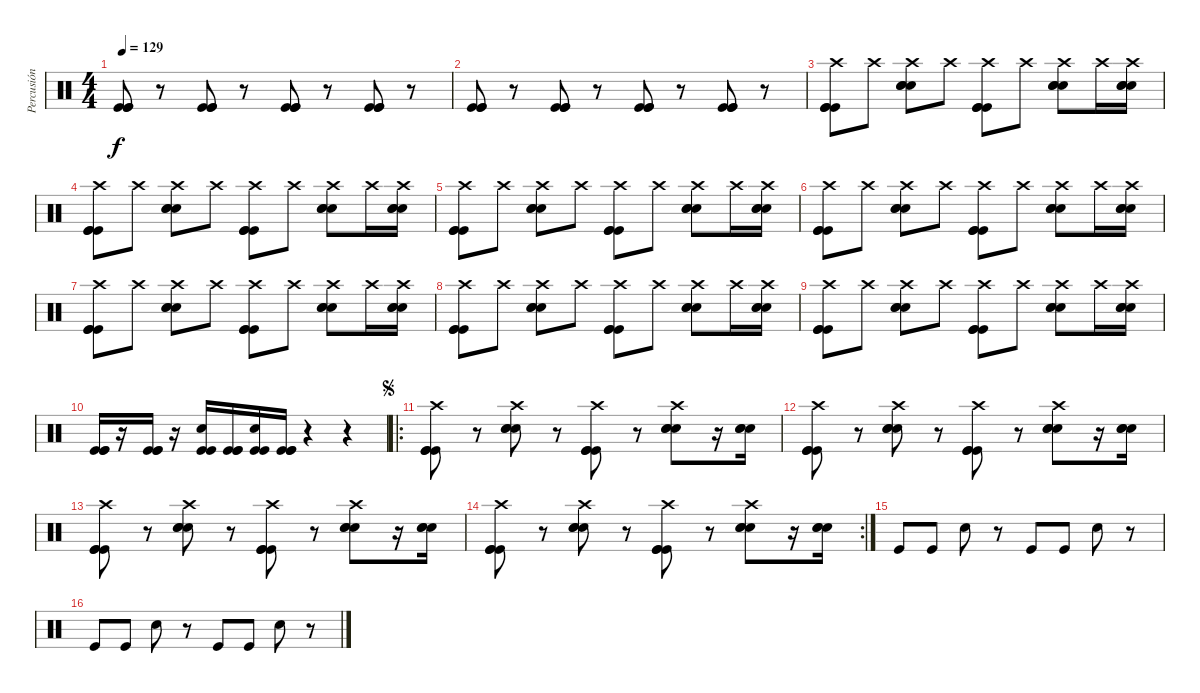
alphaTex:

\track ("Percusión" "Percusión") {instrument percussion}
\staff {score}
\articulation defaults
\ts (4 4)
\tempo 129
\clef neutral
\ks c
("Kick (hit)" "Kick (hit)" "Kick (hit)").8{dy f} r.8 ("Kick (hit)" "Kick (hit)" "Kick (hit)").8 r.8 ("Kick (hit)" "Kick (hit)" "Kick (hit)").8 r.8 ("Kick (hit)" "Kick (hit)" "Kick (hit)").8 r.8 |
("Kick (hit)" "Kick (hit)" "Kick (hit)").8 r.8 ("Kick (hit)" "Kick (hit)" "Kick (hit)").8 r.8 ("Kick (hit)" "Kick (hit)" "Kick (hit)").8 r.8 ("Kick (hit)" "Kick (hit)" "Kick (hit)").8 r.8 |
("Crash high (hit)" "Kick (hit)" "Kick (hit)" "Kick (hit)").8 "Crash high (hit)".8 ("Crash high (hit)" "Electric Snare (hit)" "Electric Snare (hit)" "Electric Snare (hit)").8 "Crash high (hit)".8 ("Crash high (hit)" "Kick (hit)" "Kick (hit)" "Kick (hit)").8 "Crash high (hit)".8 ("Crash high (hit)" "Electric Snare (hit)" "Electric Snare (hit)" "Electric Snare (hit)").8 "Crash high (hit)".16 ("Crash high (hit)" "Electric Snare (hit)" "Electric Snare (hit)" "Electric Snare (hit)").16 |
("Crash high (hit)" "Kick (hit)" "Kick (hit)" "Kick (hit)").8 "Crash high (hit)".8 ("Crash high (hit)" "Electric Snare (hit)" "Electric Snare (hit)" "Electric Snare (hit)").8 "Crash high (hit)".8 ("Crash high (hit)" "Kick (hit)" "Kick (hit)" "Kick (hit)").8 "Crash high (hit)".8 ("Crash high (hit)" "Electric Snare (hit)" "Electric Snare (hit)" "Electric Snare (hit)").8 "Crash high (hit)".16 ("Crash high (hit)" "Electric Snare (hit)" "Electric Snare (hit)" "Electric Snare (hit)").16 |
("Crash high (hit)" "Kick (hit)" "Kick (hit)" "Kick (hit)").8 "Crash high (hit)".8 ("Crash high (hit)" "Electric Snare (hit)" "Electric Snare (hit)" "Electric Snare (hit)").8 "Crash high (hit)".8 ("Crash high (hit)" "Kick (hit)" "Kick (hit)" "Kick (hit)").8 "Crash high (hit)".8 ("Crash high (hit)" "Electric Snare (hit)" "Electric Snare (hit)" "Electric Snare (hit)").8 "Crash high (hit)".16 ("Crash high (hit)" "Electric Snare (hit)" "Electric Snare (hit)" "Electric Snare (hit)").16 |
("Crash high (hit)" "Kick (hit)" "Kick (hit)" "Kick (hit)").8 "Crash high (hit)".8 ("Crash high (hit)" "Electric Snare (hit)" "Electric Snare (hit)" "Electric Snare (hit)").8 "Crash high (hit)".8 ("Crash high (hit)" "Kick (hit)" "Kick (hit)" "Kick (hit)").8 "Crash high (hit)".8 ("Crash high (hit)" "Electric Snare (hit)" "Electric Snare (hit)" "Electric Snare (hit)").8 "Crash high (hit)".16 ("Crash high (hit)" "Electric Snare (hit)" "Electric Snare (hit)" "Electric Snare (hit)").16 |
("Crash high (hit)" "Kick (hit)" "Kick (hit)" "Kick (hit)").8 "Crash high (hit)".8 ("Crash high (hit)" "Electric Snare (hit)" "Electric Snare (hit)" "Electric Snare (hit)").8 "Crash high (hit)".8 ("Crash high (hit)" "Kick (hit)" "Kick (hit)" "Kick (hit)").8 "Crash high (hit)".8 ("Crash high (hit)" "Electric Snare (hit)" "Electric Snare (hit)" "Electric Snare (hit)").8 "Crash high (hit)".16 ("Crash high (hit)" "Electric Snare (hit)" "Electric Snare (hit)" "Electric Snare (hit)").16 |
("Crash high (hit)" "Kick (hit)" "Kick (hit)" "Kick (hit)").8 "Crash high (hit)".8 ("Crash high (hit)" "Electric Snare (hit)" "Electric Snare (hit)" "Electric Snare (hit)").8 "Crash high (hit)".8 ("Crash high (hit)" "Kick (hit)" "Kick (hit)" "Kick (hit)").8 "Crash high (hit)".8 ("Crash high (hit)" "Electric Snare (hit)" "Electric Snare (hit)" "Electric Snare (hit)").8 "Crash high (hit)".16 ("Crash high (hit)" "Electric Snare (hit)" "Electric Snare (hit)" "Electric Snare (hit)").16 |
("Crash high (hit)" "Kick (hit)" "Kick (hit)" "Kick (hit)").8 "Crash high (hit)".8 ("Crash high (hit)" "Electric Snare (hit)" "Electric Snare (hit)" "Electric Snare (hit)").8 "Crash high (hit)".8 ("Crash high (hit)" "Kick (hit)" "Kick (hit)" "Kick (hit)").8 "Crash high (hit)".8 ("Crash high (hit)" "Electric Snare (hit)" "Electric Snare (hit)" "Electric Snare (hit)").8 "Crash high (hit)".16 ("Crash high (hit)" "Electric Snare (hit)" "Electric Snare (hit)" "Electric Snare (hit)").16 |
("Kick (hit)" "Kick (hit)" "Kick (hit)").16 r.16 ("Kick (hit)" "Kick (hit)" "Kick (hit)").16 r.16 ("Kick (hit)" "Kick (hit)" "Electric Snare (hit)").16 ("Kick (hit)" "Kick (hit)" "Kick (hit)").16 ("Kick (hit)" "Kick (hit)" "Electric Snare (hit)").16 ("Kick (hit)" "Kick (hit)" "Kick (hit)").16 r.4 r.4 |
\ro
\jump segno
("Crash high (hit)" "Kick (hit)" "Kick (hit)" "Kick (hit)").8 r.8 ("Crash high (hit)" "Electric Snare (hit)" "Electric Snare (hit)" "Electric Snare (hit)").8 r.8 ("Crash high (hit)" "Kick (hit)" "Kick (hit)" "Kick (hit)").8 r.8 ("Crash high (hit)" "Electric Snare (hit)" "Electric Snare (hit)" "Electric Snare (hit)").8 r.16 ("Electric Snare (hit)" "Electric Snare (hit)" "Electric Snare (hit)").16 |
("Crash high (hit)" "Kick (hit)" "Kick (hit)" "Kick (hit)").8 r.8 ("Crash high (hit)" "Electric Snare (hit)" "Electric Snare (hit)" "Electric Snare (hit)").8 r.8 ("Crash high (hit)" "Kick (hit)" "Kick (hit)" "Kick (hit)").8 r.8 ("Crash high (hit)" "Electric Snare (hit)" "Electric Snare (hit)" "Electric Snare (hit)").8 r.16 ("Electric Snare (hit)" "Electric Snare (hit)" "Electric Snare (hit)").16 |
("Crash high (hit)" "Kick (hit)" "Kick (hit)" "Kick (hit)").8 r.8 ("Crash high (hit)" "Electric Snare (hit)" "Electric Snare (hit)" "Electric Snare (hit)").8 r.8 ("Crash high (hit)" "Kick (hit)" "Kick (hit)" "Kick (hit)").8 r.8 ("Crash high (hit)" "Electric Snare (hit)" "Electric Snare (hit)" "Electric Snare (hit)").8 r.16 ("Electric Snare (hit)" "Electric Snare (hit)" "Electric Snare (hit)").16 |
\rc 2
("Crash high (hit)" "Kick (hit)" "Kick (hit)" "Kick (hit)").8 r.8 ("Crash high (hit)" "Electric Snare (hit)" "Electric Snare (hit)" "Electric Snare (hit)").8 r.8 ("Crash high (hit)" "Kick (hit)" "Kick (hit)" "Kick (hit)").8 r.8 ("Crash high (hit)" "Electric Snare (hit)" "Electric Snare (hit)" "Electric Snare (hit)").8 r.16 ("Electric Snare (hit)" "Electric Snare (hit)" "Electric Snare (hit)").16 |
"Kick (hit)".8 "Kick (hit)".8 "Electric Snare (hit)".8 r.8 "Kick (hit)".8 "Kick (hit)".8 "Electric Snare (hit)".8 r.8 |
"Kick (hit)".8 "Kick (hit)".8 "Electric Snare (hit)".8 r.8 "Kick (hit)".8 "Kick (hit)".8 "Electric Snare (hit)".8 r.8
